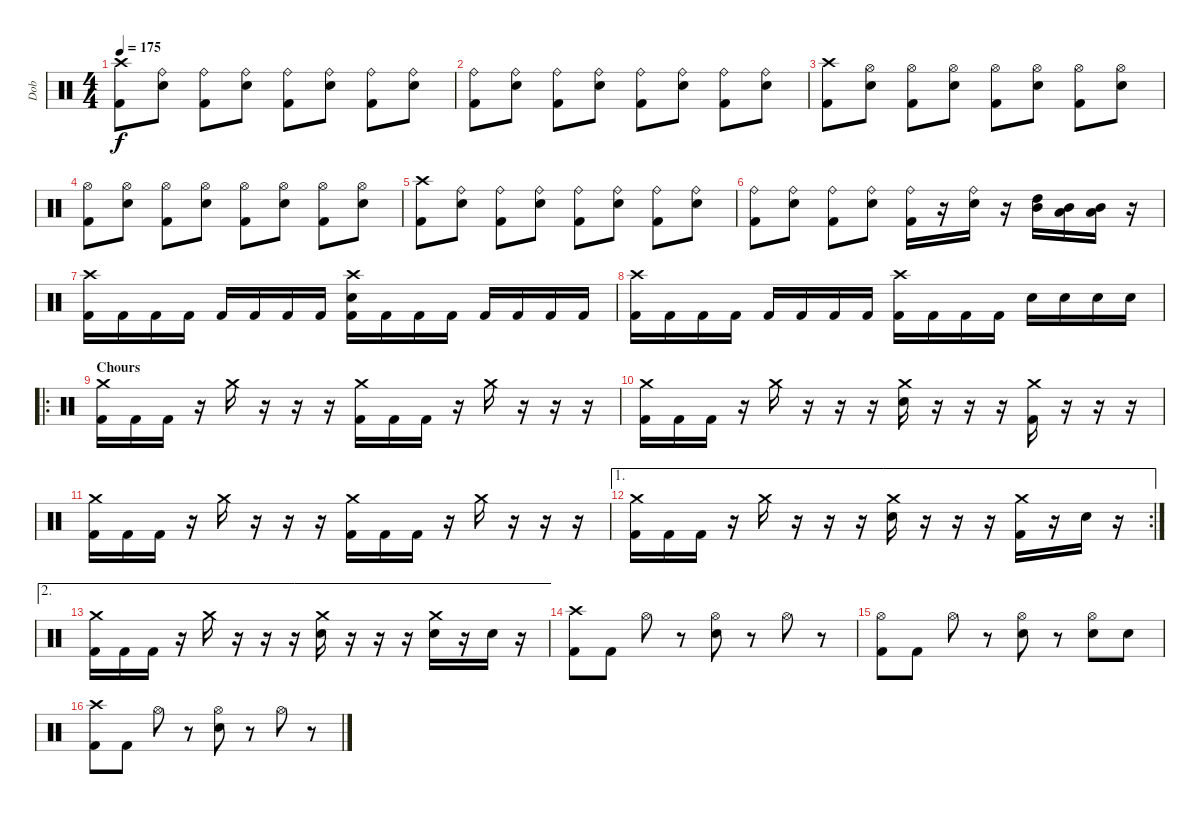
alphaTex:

\track ("Dob" "Dob") {instrument percussion}
\staff {score}
\articulation defaults
\ts (4 4)
\tempo 175
\clef neutral
\ks c
("Crash high (hit)" "Kick (hit) 2").8{dy f} ("Ride (bell)" "Snare (hit) 2").8 ("Ride (bell)" "Kick (hit) 2").8 ("Ride (bell)" "Snare (hit) 2").8 ("Ride (bell)" "Kick (hit) 2").8 ("Ride (bell)" "Snare (hit) 2").8 ("Ride (bell)" "Kick (hit) 2").8 ("Ride (bell)" "Snare (hit) 2").8 |
("Ride (bell)" "Kick (hit) 2").8 ("Ride (bell)" "Snare (hit) 2").8 ("Ride (bell)" "Kick (hit) 2").8 ("Ride (bell)" "Snare (hit) 2").8 ("Ride (bell)" "Kick (hit) 2").8 ("Ride (bell)" "Snare (hit) 2").8 ("Ride (bell)" "Kick (hit) 2").8 ("Ride (bell)" "Snare (hit) 2").8 |
("Crash high (hit)" "Kick (hit) 2").8 ("Hi-Hat (open)" "Snare (hit) 2").8 ("Hi-Hat (open)" "Kick (hit) 2").8 ("Hi-Hat (open)" "Snare (hit) 2").8 ("Hi-Hat (open)" "Kick (hit) 2").8 ("Hi-Hat (open)" "Snare (hit) 2").8 ("Hi-Hat (open)" "Kick (hit) 2").8 ("Hi-Hat (open)" "Snare (hit) 2").8 |
("Hi-Hat (open)" "Kick (hit) 2").8 ("Hi-Hat (open)" "Snare (hit) 2").8 ("Hi-Hat (open)" "Kick (hit) 2").8 ("Hi-Hat (open)" "Snare (hit) 2").8 ("Hi-Hat (open)" "Kick (hit) 2").8 ("Hi-Hat (open)" "Snare (hit) 2").8 ("Hi-Hat (open)" "Kick (hit) 2").8 ("Hi-Hat (open)" "Snare (hit) 2").8 |
("Crash high (hit)" "Kick (hit) 2").8 ("Ride (bell)" "Snare (hit) 2").8 ("Ride (bell)" "Kick (hit) 2").8 ("Ride (bell)" "Snare (hit) 2").8 ("Ride (bell)" "Kick (hit) 2").8 ("Ride (bell)" "Snare (hit) 2").8 ("Ride (bell)" "Kick (hit) 2").8 ("Ride (bell)" "Snare (hit) 2").8 |
("Ride (bell)" "Kick (hit) 2").8 ("Ride (bell)" "Snare (hit) 2").8 ("Ride (bell)" "Kick (hit) 2").8 ("Ride (bell)" "Snare (hit) 2").8 ("Ride (bell)" "Kick (hit) 2").16 r.16 ("Ride (bell)" "Snare (hit) 2").16 r.16 ("Mid Tom (hit)" "High Tom (hit)").16 ("Low Tom (hit)" "Mid Tom (hit)").16 ("Low Tom (hit)" "Mid Tom (hit)").16 r.16 |
("Crash high (hit)" "Kick (hit) 2").16 "Kick (hit) 2".16 "Kick (hit) 2".16 "Kick (hit) 2".16 "Kick (hit) 2".16 "Kick (hit) 2".16 "Kick (hit) 2".16 "Kick (hit) 2".16 ("Crash high (hit)" "Snare (hit) 2" "Kick (hit) 2").16 "Kick (hit) 2".16 "Kick (hit) 2".16 "Kick (hit) 2".16 "Kick (hit) 2".16 "Kick (hit) 2".16 "Kick (hit) 2".16 "Kick (hit) 2".16 |
("Crash high (hit)" "Kick (hit) 2").16 "Kick (hit) 2".16 "Kick (hit) 2".16 "Kick (hit) 2".16 "Kick (hit) 2".16 "Kick (hit) 2".16 "Kick (hit) 2".16 "Kick (hit) 2".16 ("Crash high (hit)" "Kick (hit) 2").16 "Kick (hit) 2".16 "Kick (hit) 2".16 "Kick (hit) 2".16 "Snare (hit) 2".16 "Snare (hit) 2".16 "Snare (hit) 2".16 "Snare (hit) 2".16 |
\ro
\section ("" "Chours")
("Crash medium (hit)" "Kick (hit) 2").16 "Kick (hit) 2".16 "Kick (hit) 2".16 r.16 "Crash medium (hit)".16 r.16 r.16 r.16 ("Crash medium (hit)" "Kick (hit) 2").16 "Kick (hit) 2".16 "Kick (hit) 2".16 r.16 "Crash medium (hit)".16 r.16 r.16 r.16 |
("Crash medium (hit)" "Kick (hit) 2").16 "Kick (hit) 2".16 "Kick (hit) 2".16 r.16 "Crash medium (hit)".16 r.16 r.16 r.16 ("Crash medium (hit)" "Snare (hit) 2").16 r.16 r.16 r.16 ("Crash medium (hit)" "Kick (hit) 2").16 r.16 r.16 r.16 |
("Crash medium (hit)" "Kick (hit) 2").16 "Kick (hit) 2".16 "Kick (hit) 2".16 r.16 "Crash medium (hit)".16 r.16 r.16 r.16 ("Crash medium (hit)" "Kick (hit) 2").16 "Kick (hit) 2".16 "Kick (hit) 2".16 r.16 "Crash medium (hit)".16 r.16 r.16 r.16 |
\ae 1
\rc 2
("Crash medium (hit)" "Kick (hit) 2").16 "Kick (hit) 2".16 "Kick (hit) 2".16 r.16 "Crash medium (hit)".16 r.16 r.16 r.16 ("Crash medium (hit)" "Snare (hit) 2").16 r.16 r.16 r.16 ("Crash medium (hit)" "Kick (hit) 2").16 r.16 "Snare (hit) 2".16 r.16 |
\ae 2
("Crash medium (hit)" "Kick (hit) 2").16 "Kick (hit) 2".16 "Kick (hit) 2".16 r.16 "Crash medium (hit)".16 r.16 r.16 r.16 ("Crash medium (hit)" "Snare (hit) 2").16 r.16 r.16 r.16 ("Crash medium (hit)" "Snare (hit) 2").16 r.16 "Snare (hit) 2".16 r.16 |
("Crash high (hit)" "Kick (hit) 2").8 "Kick (hit) 2".8 "Hi-Hat (open)".8 r.8 ("Hi-Hat (open)" "Snare (hit) 2").8 r.8 "Hi-Hat (open)".8 r.8 |
("Hi-Hat (open)" "Kick (hit) 2").8 "Kick (hit) 2".8 "Hi-Hat (open)".8 r.8 ("Hi-Hat (open)" "Snare (hit) 2").8 r.8 ("Hi-Hat (open)" "Snare (hit) 2").8 "Snare (hit) 2".8 |
("Crash high (hit)" "Kick (hit) 2").8 "Kick (hit) 2".8 "Hi-Hat (open)".8 r.8 ("Hi-Hat (open)" "Snare (hit) 2").8 r.8 "Hi-Hat (open)".8 r.8
